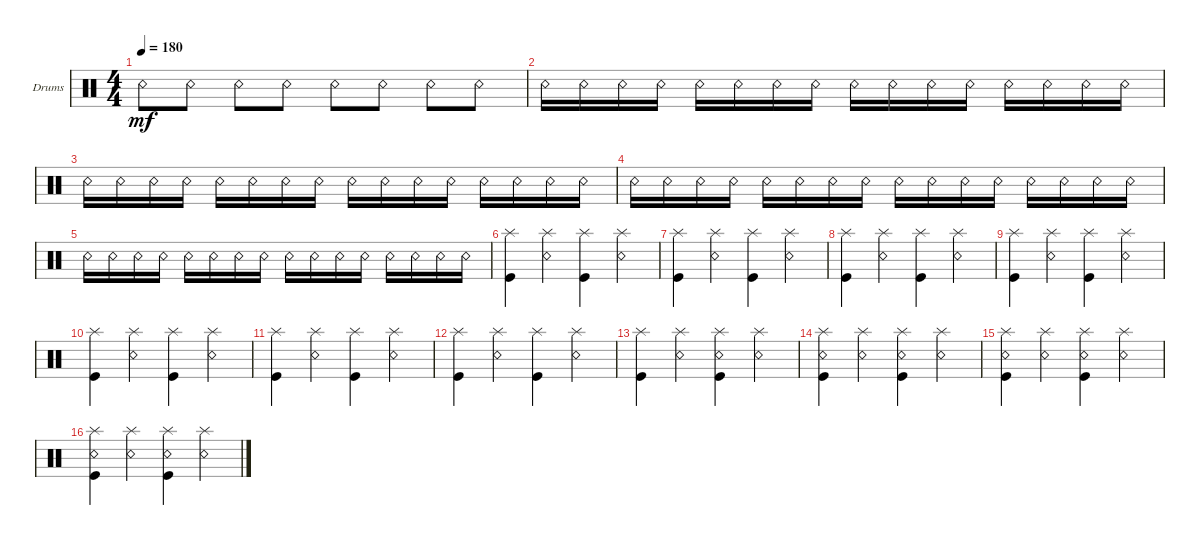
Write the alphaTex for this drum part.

\defaultSystemsLayout 4
\bracketExtendMode groupsimilarinstruments
\firstSystemTrackNameOrientation horizontal
\otherSystemsTrackNameOrientation horizontal
\track ("Drumkit" "Drums") {instrument percussion}
\staff {score}
\articulation defaults
\ts (4 4)
\tempo 180
\clef neutral
\scale
0.333333
\ks c "Snare (rim shot)".8{dy mf} "Snare (rim shot)".8 "Snare (rim shot)".8 "Snare (rim shot)".8 "Snare (rim shot)".8 "Snare (rim shot)".8 "Snare (rim shot)".8 "Snare (rim shot)".8
|
\scale
0.333333 "Snare (rim shot)".16 "Snare (rim shot)".16 "Snare (rim shot)".16 "Snare (rim shot)".16 "Snare (rim shot)".16 "Snare (rim shot)".16 "Snare (rim shot)".16 "Snare (rim shot)".16 "Snare (rim shot)".16 "Snare (rim shot)".16 "Snare (rim shot)".16 "Snare (rim shot)".16 "Snare (rim shot)".16 "Snare (rim shot)".16 "Snare (rim shot)".16 "Snare (rim shot)".16 |
\scale
0.333333 "Snare (rim shot)".16 "Snare (rim shot)".16 "Snare (rim shot)".16 "Snare (rim shot)".16 "Snare (rim shot)".16 "Snare (rim shot)".16 "Snare (rim shot)".16 "Snare (rim shot)".16 "Snare (rim shot)".16 "Snare (rim shot)".16 "Snare (rim shot)".16 "Snare (rim shot)".16 "Snare (rim shot)".16 "Snare (rim shot)".16 "Snare (rim shot)".16 "Snare (rim shot)".16 |
\scale
0.333333 "Snare (rim shot)".16 "Snare (rim shot)".16 "Snare (rim shot)".16 "Snare (rim shot)".16 "Snare (rim shot)".16 "Snare (rim shot)".16 "Snare (rim shot)".16 "Snare (rim shot)".16 "Snare (rim shot)".16 "Snare (rim shot)".16 "Snare (rim shot)".16 "Snare (rim shot)".16 "Snare (rim shot)".16 "Snare (rim shot)".16 "Snare (rim shot)".16 "Snare (rim shot)".16 |
\scale
0.333333 "Snare (rim shot)".16 "Snare (rim shot)".16 "Snare (rim shot)".16 "Snare (rim shot)".16 "Snare (rim shot)".16 "Snare (rim shot)".16 "Snare (rim shot)".16 "Snare (rim shot)".16 "Snare (rim shot)".16 "Snare (rim shot)".16 "Snare (rim shot)".16 "Snare (rim shot)".16 "Snare (rim shot)".16 "Snare (rim shot)".16 "Snare (rim shot)".16 "Snare (rim shot)".16 |
\scale
0.333333 ("Kick (hit)" "Splash (hit)").4 ("Snare (rim shot)" "Splash (hit)").4 ("Kick (hit)" "Splash (hit)").4 ("Snare (rim shot)" "Splash (hit)").4 |
\scale
0.333333 ("Kick (hit)" "Splash (hit)").4 ("Snare (rim shot)" "Splash (hit)").4 ("Kick (hit)" "Splash (hit)").4 ("Snare (rim shot)" "Splash (hit)").4 |
\scale
0.333333 ("Kick (hit)" "Splash (hit)").4 ("Snare (rim shot)" "Splash (hit)").4 ("Kick (hit)" "Splash (hit)").4 ("Snare (rim shot)" "Splash (hit)").4 |
\scale
0.333333 ("Kick (hit)" "Splash (hit)").4 ("Snare (rim shot)" "Splash (hit)").4 ("Kick (hit)" "Splash (hit)").4 ("Snare (rim shot)" "Splash (hit)").4 |
\scale
0.333333 ("Kick (hit)" "Splash (hit)").4 ("Snare (rim shot)" "Splash (hit)").4 ("Kick (hit)" "Splash (hit)").4 ("Snare (rim shot)" "Splash (hit)").4 |
\scale
0.333333 ("Kick (hit)" "Splash (hit)").4 ("Snare (rim shot)" "Splash (hit)").4 ("Kick (hit)" "Splash (hit)").4 ("Snare (rim shot)" "Splash (hit)").4 |
\scale
0.333333 ("Kick (hit)" "Splash (hit)").4 ("Snare (rim shot)" "Splash (hit)").4 ("Kick (hit)" "Splash (hit)").4 ("Snare (rim shot)" "Splash (hit)").4 |
\scale
0.333333 ("Kick (hit)" "Splash (hit)").4 ("Snare (rim shot)" "Splash (hit)").4 ("Kick (hit)" "Splash (hit)" "Snare (rim shot)").4 ("Snare (rim shot)" "Splash (hit)").4 |
\scale
0.333333 ("Kick (hit)" "Splash (hit)" "Snare (rim shot)").4 ("Snare (rim shot)" "Splash (hit)").4 ("Kick (hit)" "Splash (hit)" "Snare (rim shot)").4 ("Snare (rim shot)" "Splash (hit)").4 |
\scale
0.333333 ("Kick (hit)" "Splash (hit)" "Snare (rim shot)").4 ("Snare (rim shot)" "Splash (hit)").4 ("Kick (hit)" "Splash (hit)" "Snare (rim shot)").4 ("Snare (rim shot)" "Splash (hit)").4 |
\scale
0.333333 ("Kick (hit)" "Splash (hit)" "Snare (rim shot)").4 ("Snare (rim shot)" "Splash (hit)").4 ("Kick (hit)" "Splash (hit)" "Snare (rim shot)").4 ("Snare (rim shot)" "Splash (hit)").4
